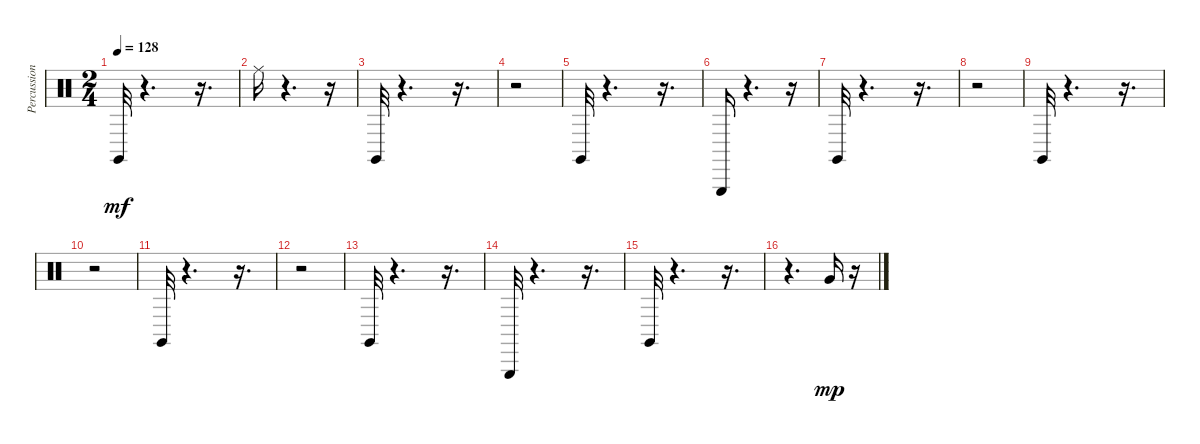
\track ("Percussion" "Percussion") {instrument percussion}
\staff {score}
\articulation defaults
\ts (2 4)
\tempo 128
\clef neutral
\ks c "Claves (hit)".32{dy mf}
r.4{d} r.16{d} |
"Ride (middle)".16 r.4{d} r.16 |
"Claves (hit)".32 r.4{d} r.16{d} |
r.2 |
"Claves (hit)".32 r.4{d} r.16{d} |
"Triangle (hit)".16 r.4{d} r.16 |
"Claves (hit)".32 r.4{d} r.16{d} |
r.2 |
"Claves (hit)".32 r.4{d} r.16{d} |
r.2 |
"Claves (hit)".32 r.4{d} r.16{d} |
r.2 |
"Claves (hit)".32 r.4{d} r.16{d} |
"Triangle (hit)".32 r.4{d} r.16{d} |
"Claves (hit)".32 r.4{d} r.16{d} |
r.4{d} "Very Low Tom (hit)".16{dy mp} r.16
